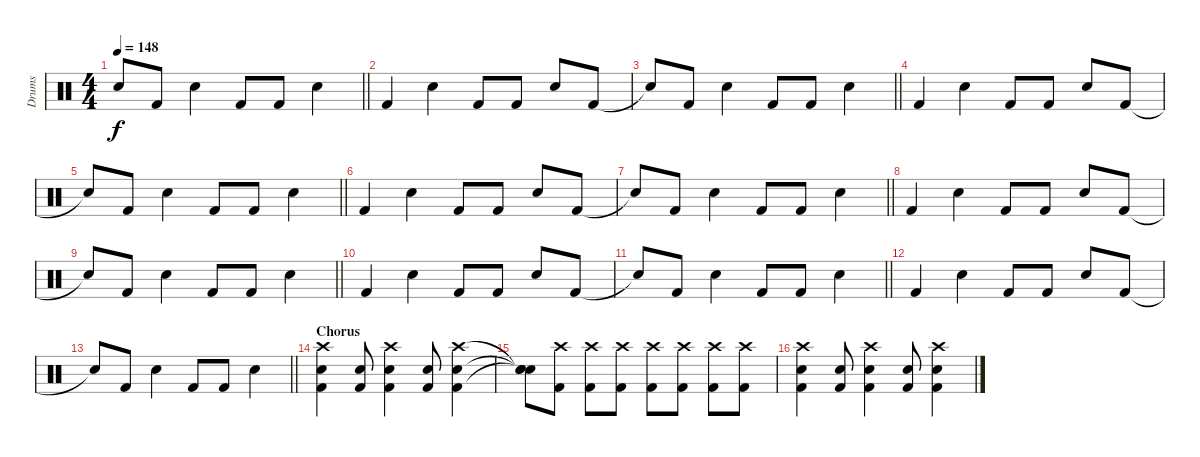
\track ("Drums" "Drums") {instrument percussion}
\staff {score}
\articulation defaults
\ts (4 4)
\tempo 148
\clef neutral
\barLineRight lightlight
\ks c "Snare (hit)"{t}.8{dy f} "Kick (hit) 2".8 "Electric Snare (hit)".4 "Kick (hit) 2".8 "Kick (hit) 2".8 "Electric Snare (hit)".4
|
"Kick (hit) 2".4 "Electric Snare (hit)".4 "Kick (hit) 2".8 "Kick (hit) 2".8 "Electric Snare (hit)".8 "Kick (hit) 2".8 |
\barLineRight lightlight "Snare (hit)"{t}.8 "Kick (hit) 2".8 "Electric Snare (hit)".4 "Kick (hit) 2".8 "Kick (hit) 2".8 "Electric Snare (hit)".4
|
"Kick (hit) 2".4 "Electric Snare (hit)".4 "Kick (hit) 2".8 "Kick (hit) 2".8 "Electric Snare (hit)".8 "Kick (hit) 2".8 |
\barLineRight lightlight "Snare (hit)"{t}.8 "Kick (hit) 2".8 "Electric Snare (hit)".4 "Kick (hit) 2".8 "Kick (hit) 2".8 "Electric Snare (hit)".4
|
"Kick (hit) 2".4 "Electric Snare (hit)".4 "Kick (hit) 2".8 "Kick (hit) 2".8 "Electric Snare (hit)".8 "Kick (hit) 2".8 |
\barLineRight lightlight "Snare (hit)"{t}.8 "Kick (hit) 2".8 "Electric Snare (hit)".4 "Kick (hit) 2".8 "Kick (hit) 2".8 "Electric Snare (hit)".4
|
"Kick (hit) 2".4 "Electric Snare (hit)".4 "Kick (hit) 2".8 "Kick (hit) 2".8 "Electric Snare (hit)".8 "Kick (hit) 2".8 |
\barLineRight lightlight "Snare (hit)"{t}.8 "Kick (hit) 2".8 "Electric Snare (hit)".4 "Kick (hit) 2".8 "Kick (hit) 2".8 "Electric Snare (hit)".4
|
"Kick (hit) 2".4 "Electric Snare (hit)".4 "Kick (hit) 2".8 "Kick (hit) 2".8 "Electric Snare (hit)".8 "Kick (hit) 2".8 |
\barLineRight lightlight "Snare (hit)"{t}.8 "Kick (hit) 2".8 "Electric Snare (hit)".4 "Kick (hit) 2".8 "Kick (hit) 2".8 "Electric Snare (hit)".4
|
"Kick (hit) 2".4 "Electric Snare (hit)".4 "Kick (hit) 2".8 "Kick (hit) 2".8 "Electric Snare (hit)".8 "Kick (hit) 2".8 |
\barLineRight lightlight "Snare (hit)"{t}.8 "Kick (hit) 2".8 "Electric Snare (hit)".4 "Kick (hit) 2".8 "Kick (hit) 2".8 "Electric Snare (hit)".4
|
\section ("" "Chorus")
("Crash high (hit)" "Electric Snare (hit)" "Kick (hit) 2").4 ("Electric Snare (hit)" "Kick (hit) 2").8 ("Crash high (hit)" "Electric Snare (hit)" "Kick (hit) 2").4 ("Electric Snare (hit)" "Kick (hit) 2").8 ("Crash high (hit)" "Electric Snare (hit)" "Kick (hit) 2").4 |
("Snare (hit)"{t} "Snare (hit)"{t} "Snare (hit)"{t}).8 ("Crash high (hit)" "Kick (hit) 2").8 ("Crash high (hit)" "Kick (hit) 2").8 ("Crash high (hit)" "Kick (hit) 2").8 ("Crash high (hit)" "Kick (hit) 2").8 ("Crash high (hit)" "Kick (hit) 2").8 ("Crash high (hit)" "Kick (hit) 2").8 ("Crash high (hit)" "Kick (hit) 2").8 |
("Crash high (hit)" "Electric Snare (hit)" "Kick (hit) 2").4 ("Electric Snare (hit)" "Kick (hit) 2").8 ("Crash high (hit)" "Electric Snare (hit)" "Kick (hit) 2").4 ("Electric Snare (hit)" "Kick (hit) 2").8 ("Crash high (hit)" "Electric Snare (hit)" "Kick (hit) 2").4
